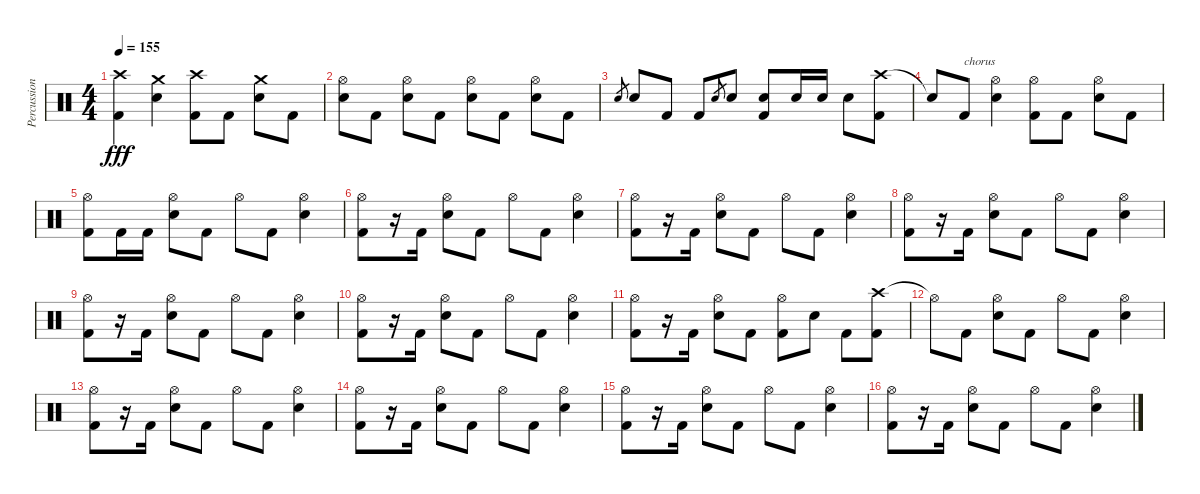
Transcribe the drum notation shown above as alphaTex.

\track ("Percussion" "Percussion") {instrument percussion}
\staff {score}
\articulation defaults
\ts (4 4)
\tempo 155
\clef neutral
\ks c
("Crash high (hit)" "Kick (hit) 2").4{dy fff} ("Crash medium (hit)" "Electric Snare (hit)").4 ("Crash high (hit)" "Kick (hit) 2").8 "Kick (hit) 2".8 ("Crash medium (hit)" "Electric Snare (hit)").8 "Kick (hit) 2".8 |
("Hi-Hat (open)" "Electric Snare (hit)").8 "Kick (hit) 2".8 ("Hi-Hat (open)" "Electric Snare (hit)").8 "Kick (hit) 2".8 ("Hi-Hat (open)" "Electric Snare (hit)").8 "Kick (hit) 2".8 ("Hi-Hat (open)" "Electric Snare (hit)").8 "Kick (hit) 2".8 |
"Electric Snare (hit)".8{gr} "Electric Snare (hit)".8 "Kick (hit) 2".8 "Kick (hit) 2".8 "Electric Snare (hit)".8{gr} "Electric Snare (hit)".8 ("Electric Snare (hit)" "Kick (hit) 2").8 "Electric Snare (hit)".16 "Electric Snare (hit)".16 "Electric Snare (hit)".8 ("Crash high (hit)" "Kick (hit) 2").8 |
"Snare (hit)"{t}.8 "Kick (hit) 2".8{txt "chorus"} ("Hi-Hat (open)" "Electric Snare (hit)").4 ("Hi-Hat (open)" "Kick (hit) 2").8 "Kick (hit) 2".8 ("Hi-Hat (open)" "Electric Snare (hit)").8 "Kick (hit) 2".8 |
("Hi-Hat (open)" "Kick (hit) 2").8 "Kick (hit) 2".16 "Kick (hit) 2".16 ("Hi-Hat (open)" "Electric Snare (hit)").8 "Kick (hit) 2".8 "Hi-Hat (open)".8 "Kick (hit) 2".8 ("Hi-Hat (open)" "Electric Snare (hit)").4 |
("Hi-Hat (open)" "Kick (hit) 2").8 r.16 "Kick (hit) 2".16 ("Hi-Hat (open)" "Electric Snare (hit)").8 "Kick (hit) 2".8 "Hi-Hat (open)".8 "Kick (hit) 2".8 ("Hi-Hat (open)" "Electric Snare (hit)").4 |
("Hi-Hat (open)" "Kick (hit) 2").8 r.16 "Kick (hit) 2".16 ("Hi-Hat (open)" "Electric Snare (hit)").8 "Kick (hit) 2".8 "Hi-Hat (open)".8 "Kick (hit) 2".8 ("Hi-Hat (open)" "Electric Snare (hit)").4 |
("Hi-Hat (open)" "Kick (hit) 2").8 r.16 "Kick (hit) 2".16 ("Hi-Hat (open)" "Electric Snare (hit)").8 "Kick (hit) 2".8 "Hi-Hat (open)".8 "Kick (hit) 2".8 ("Hi-Hat (open)" "Electric Snare (hit)").4 |
("Hi-Hat (open)" "Kick (hit) 2").8 r.16 "Kick (hit) 2".16 ("Hi-Hat (open)" "Electric Snare (hit)").8 "Kick (hit) 2".8 "Hi-Hat (open)".8 "Kick (hit) 2".8 ("Hi-Hat (open)" "Electric Snare (hit)").4 |
("Hi-Hat (open)" "Kick (hit) 2").8 r.16 "Kick (hit) 2".16 ("Hi-Hat (open)" "Electric Snare (hit)").8 "Kick (hit) 2".8 "Hi-Hat (open)".8 "Kick (hit) 2".8 ("Hi-Hat (open)" "Electric Snare (hit)").4 |
("Hi-Hat (open)" "Kick (hit) 2").8 r.16 "Kick (hit) 2".16 ("Hi-Hat (open)" "Electric Snare (hit)").8 "Kick (hit) 2".8 ("Hi-Hat (open)" "Kick (hit) 2").8 "Electric Snare (hit)".8 "Kick (hit) 2".8 ("Crash high (hit)" "Kick (hit) 2").8 |
"Hi-Hat (open)"{t}.8 "Kick (hit) 2".8 ("Hi-Hat (open)" "Electric Snare (hit)").8 "Kick (hit) 2".8 "Hi-Hat (open)".8 "Kick (hit) 2".8 ("Hi-Hat (open)" "Electric Snare (hit)").4 |
("Hi-Hat (open)" "Kick (hit) 2").8 r.16 "Kick (hit) 2".16 ("Hi-Hat (open)" "Electric Snare (hit)").8 "Kick (hit) 2".8 "Hi-Hat (open)".8 "Kick (hit) 2".8 ("Hi-Hat (open)" "Electric Snare (hit)").4 |
("Hi-Hat (open)" "Kick (hit) 2").8 r.16 "Kick (hit) 2".16 ("Hi-Hat (open)" "Electric Snare (hit)").8 "Kick (hit) 2".8 "Hi-Hat (open)".8 "Kick (hit) 2".8 ("Hi-Hat (open)" "Electric Snare (hit)").4 |
("Hi-Hat (open)" "Kick (hit) 2").8 r.16 "Kick (hit) 2".16 ("Hi-Hat (open)" "Electric Snare (hit)").8 "Kick (hit) 2".8 "Hi-Hat (open)".8 "Kick (hit) 2".8 ("Hi-Hat (open)" "Electric Snare (hit)").4 |
("Hi-Hat (open)" "Kick (hit) 2").8 r.16 "Kick (hit) 2".16 ("Hi-Hat (open)" "Electric Snare (hit)").8 "Kick (hit) 2".8 "Hi-Hat (open)".8 "Kick (hit) 2".8 ("Hi-Hat (open)" "Electric Snare (hit)").4
